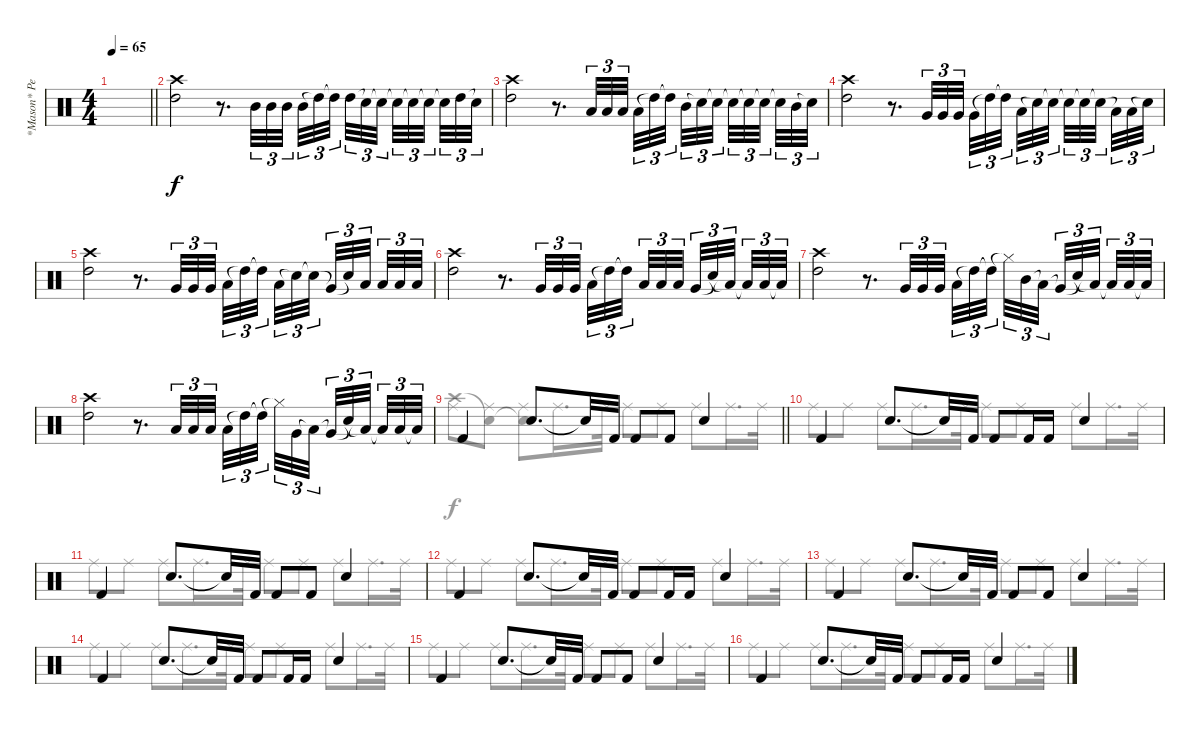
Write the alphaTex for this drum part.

\track ("*Mason* Percussion" "*Mason* Pe") {instrument percussion}
\staff {score}
\articulation defaults
\voice
\ts (4 4)
\tempo 65
\clef neutral
\barLineRight lightlight
\ks c
|
("Crash high (hit)" "High Tom (hit)").2 r.8{d} "Mid Tom (hit)".32{tu (3 2)} "Mid Tom (hit)".32{tu (3 2)} "Mid Tom (hit)".32{tu (3 2)} "Mid Tom (hit)".32{tu (3 2)} "High Tom (hit)"{t}.32{tu (3 2)} "High Tom (hit)"{t}.32{tu (3 2) beam splitsecondary} "High Tom (hit)".32{tu (3 2)} "Snare (hit)"{t}.32{tu (3 2)} "Snare (hit)"{t}.32{tu (3 2) beam splitsecondary} "Snare (hit)"{t}.32{tu (3 2)} "Snare (hit)"{t}.32{tu (3 2)} "Snare (hit)"{t}.32{tu (3 2) beam splitsecondary} "Snare (hit)"{t}.32{tu (3 2)} "High Tom (hit)".32{tu (3 2)} "Snare (hit)"{t}.32{tu (3 2)} |
("Crash high (hit)" "High Tom (hit)").2 r.8{d} "Low Tom (hit)".32{tu (3 2)} "Low Tom (hit)".32{tu (3 2)} "Low Tom (hit)".32{tu (3 2)} "Low Tom (hit)".32{tu (3 2)} "High Tom (hit)"{t}.32{tu (3 2)} "High Tom (hit)"{t}.32{tu (3 2) beam splitsecondary} "Mid Tom (hit)".32{tu (3 2)} "Snare (hit)"{t}.32{tu (3 2)} "Snare (hit)"{t}.32{tu (3 2) beam splitsecondary} "Snare (hit)"{t}.32{tu (3 2)} "Snare (hit)"{t}.32{tu (3 2)} "Snare (hit)"{t}.32{tu (3 2) beam splitsecondary} "Snare (hit)"{t}.32{tu (3 2)} "Mid Tom (hit)".32{tu (3 2)} "Snare (hit)"{t}.32{tu (3 2)} |
("Crash high (hit)" "High Tom (hit)").2 r.8{d} "Very Low Tom (hit)".32{tu (3 2)} "Very Low Tom (hit)".32{tu (3 2)} "Very Low Tom (hit)".32{tu (3 2)} "Very Low Tom (hit)".32{tu (3 2)} "High Tom (hit)"{t}.32{tu (3 2)} "High Tom (hit)"{t}.32{tu (3 2) beam splitsecondary} "Low Tom (hit)".32{tu (3 2)} "Snare (hit)"{t}.32{tu (3 2)} "Snare (hit)"{t}.32{tu (3 2) beam splitsecondary} "Snare (hit)"{t}.32{tu (3 2)} "Snare (hit)"{t}.32{tu (3 2)} "Snare (hit)"{t}.32{tu (3 2) beam splitsecondary} "Low Tom (hit)"{t}.32{tu (3 2)} "Low Tom (hit)".32{tu (3 2)} "Snare (hit)"{t}.32{tu (3 2)} |
("Crash high (hit)" "High Tom (hit)").2 r.8{d} "Very Low Tom (hit)".32{tu (3 2)} "Very Low Tom (hit)".32{tu (3 2)} "Very Low Tom (hit)".32{tu (3 2)} "Low Tom (hit)".32{tu (3 2)} "High Tom (hit)"{t}.32{tu (3 2)} "High Tom (hit)"{t}.32{tu (3 2) beam splitsecondary} "Low Tom (hit)".32{tu (3 2)} "Snare (hit)"{t}.32{tu (3 2)} "Snare (hit)"{t}.32{tu (3 2) beam splitsecondary} "Very Low Tom (hit)"{t}.32{tu (3 2)} "Snare (hit)"{t}.32{tu (3 2)} "Low Tom (hit)".32{tu (3 2) beam splitsecondary} "Low Tom (hit)".32{tu (3 2)} "Low Tom (hit)".32{tu (3 2)} "Low Tom (hit)".32{tu (3 2)} |
("Crash high (hit)" "High Tom (hit)").2 r.8{d} "Very Low Tom (hit)".32{tu (3 2)} "Very Low Tom (hit)".32{tu (3 2)} "Very Low Tom (hit)".32{tu (3 2)} "Low Tom (hit)".32{tu (3 2)} "High Tom (hit)"{t}.32{tu (3 2)} "High Tom (hit)"{t}.32{tu (3 2) beam splitsecondary} "Low Tom (hit)".32{tu (3 2)} "Low Tom (hit)".32{tu (3 2)} "Low Tom (hit)".32{tu (3 2) beam splitsecondary} "Very Low Tom (hit)".32{tu (3 2)} "Snare (hit)"{t}.32{tu (3 2)} "Low Tom (hit)"{t}.32{tu (3 2) beam splitsecondary} "Low Tom (hit)"{t}.32{tu (3 2)} "Low Tom (hit)".32{tu (3 2)} "Low Tom (hit)"{t}.32{tu (3 2)} |
("Crash high (hit)" "High Tom (hit)").2 r.8{d} "Very Low Tom (hit)".32{tu (3 2)} "Very Low Tom (hit)".32{tu (3 2)} "Very Low Tom (hit)".32{tu (3 2)} "Low Tom (hit)".32{tu (3 2)} "High Tom (hit)"{t}.32{tu (3 2)} "High Tom (hit)"{t}.32{tu (3 2) beam splitsecondary} "Hi-Hat (closed)"{t}.32{tu (3 2)} "Mid Tom (hit)".32{tu (3 2)} "Low Tom (hit)"{t}.32{tu (3 2) beam splitsecondary} "Very Low Tom (hit)"{t}.32{tu (3 2)} "Snare (hit)"{t}.32{tu (3 2)} "Low Tom (hit)"{t}.32{tu (3 2) beam splitsecondary} "Low Tom (hit)"{t}.32{tu (3 2)} "Low Tom (hit)".32{tu (3 2)} "Low Tom (hit)"{t}.32{tu (3 2)} |
("Crash high (hit)" "High Tom (hit)").2 r.8{d} "Low Floor Tom (hit)".32{tu (3 2)} "Low Floor Tom (hit)".32{tu (3 2)} "Low Floor Tom (hit)".32{tu (3 2)} "Low Tom (hit)".32{tu (3 2)} "High Tom (hit)"{t}.32{tu (3 2)} "High Tom (hit)"{t}.32{tu (3 2) beam splitsecondary} "Hi-Hat (closed)"{t}.32{tu (3 2)} "Very Low Tom (hit)".32{tu (3 2)} "Low Tom (hit)"{t}.32{tu (3 2) beam splitsecondary} "Very Low Tom (hit)"{t}.32{tu (3 2)} "Snare (hit)"{t}.32{tu (3 2)} "Low Tom (hit)"{t}.32{tu (3 2) beam splitsecondary} "Low Tom (hit)"{t}.32{tu (3 2)} "Low Tom (hit)".32{tu (3 2)} "Low Tom (hit)"{t}.32{tu (3 2)} |
\barLineRight lightlight "Kick (hit) 2".4 "Snare (hit) 2".8{d} "Snare (hit)"{t}.32 "Kick (hit) 2".32 "Kick (hit) 2".8 "Kick (hit) 2".8 "Snare (hit) 2".4
|
"Kick (hit) 2".4 "Snare (hit) 2".8{d} "Snare (hit)"{t}.32 "Kick (hit) 2".32 "Kick (hit) 2".8 "Kick (hit) 2".16 "Kick (hit) 2".16 "Snare (hit) 2".4 |
"Kick (hit) 2".4 "Snare (hit) 2".8{d} "Snare (hit)"{t}.32 "Kick (hit) 2".32 "Kick (hit) 2".8 "Kick (hit) 2".8 "Snare (hit) 2".4 |
"Kick (hit) 2".4 "Snare (hit) 2".8{d} "Snare (hit)"{t}.32 "Kick (hit) 2".32 "Kick (hit) 2".8 "Kick (hit) 2".16 "Kick (hit) 2".16 "Snare (hit) 2".4 |
"Kick (hit) 2".4 "Snare (hit) 2".8{d} "Snare (hit)"{t}.32 "Kick (hit) 2".32 "Kick (hit) 2".8 "Kick (hit) 2".8 "Snare (hit) 2".4 |
"Kick (hit) 2".4 "Snare (hit) 2".8{d} "Snare (hit)"{t}.32 "Kick (hit) 2".32 "Kick (hit) 2".8 "Kick (hit) 2".16 "Kick (hit) 2".16 "Snare (hit) 2".4 |
"Kick (hit) 2".4 "Snare (hit) 2".8{d} "Snare (hit)"{t}.32 "Kick (hit) 2".32 "Kick (hit) 2".8 "Kick (hit) 2".8 "Snare (hit) 2".4 |
"Kick (hit) 2".4 "Snare (hit) 2".8{d} "Snare (hit)"{t}.32 "Kick (hit) 2".32 "Kick (hit) 2".8 "Kick (hit) 2".16 "Kick (hit) 2".16 "Snare (hit) 2".4
\voice
\clef neutral
\ottava regular
\simile none
\barLineRight lightlight
\ks c
|
|
|
|
|
|
|
|
\barLineRight lightlight
("Ride (middle)" "Crash high (hit)").8 ("Ride (middle)" "Snare (hit)"{t}).8{dy f} ("Ride (middle)" "Snare (hit)"{t}).8 "Ride (middle)".16{d} "Ride (middle)".32 "Ride (middle)".8 "Ride (middle)".8 "Ride (middle)".8 "Ride (middle)".16{d} "Ride (middle)".32 |
"Ride (middle)".8 "Ride (middle)".8 "Ride (middle)".8 "Ride (middle)".16{d} "Ride (middle)".32 "Ride (middle)".8 "Ride (middle)".8 "Ride (middle)".8 "Ride (middle)".16{d} "Ride (middle)".32 |
"Ride (middle)".8 "Ride (middle)".8 "Ride (middle)".8 "Ride (middle)".16{d} "Ride (middle)".32 "Ride (middle)".8 "Ride (middle)".8 "Ride (middle)".8 "Ride (middle)".16{d} "Ride (middle)".32 |
"Ride (middle)".8 "Ride (middle)".8 "Ride (middle)".8 "Ride (middle)".16{d} "Ride (middle)".32 "Ride (middle)".8 "Ride (middle)".8 "Ride (middle)".8 "Ride (middle)".16{d} "Ride (middle)".32 |
"Ride (middle)".8 "Ride (middle)".8 "Ride (middle)".8 "Ride (middle)".16{d} "Ride (middle)".32 "Ride (middle)".8 "Ride (middle)".8 "Ride (middle)".8 "Ride (middle)".16{d} "Ride (middle)".32 |
"Ride (middle)".8 "Ride (middle)".8 "Ride (middle)".8 "Ride (middle)".16{d} "Ride (middle)".32 "Ride (middle)".8 "Ride (middle)".8 "Ride (middle)".8 "Ride (middle)".16{d} "Ride (middle)".32 |
"Ride (middle)".8 "Ride (middle)".8 "Ride (middle)".8 "Ride (middle)".16{d} "Ride (middle)".32 "Ride (middle)".8 "Ride (middle)".8 "Ride (middle)".8 "Ride (middle)".16{d} "Ride (middle)".32 |
"Ride (middle)".8 "Ride (middle)".8 "Ride (middle)".8 "Ride (middle)".16{d} "Ride (middle)".32 "Ride (middle)".8 "Ride (middle)".8 "Ride (middle)".8 "Ride (middle)".16{d} "Ride (middle)".32
